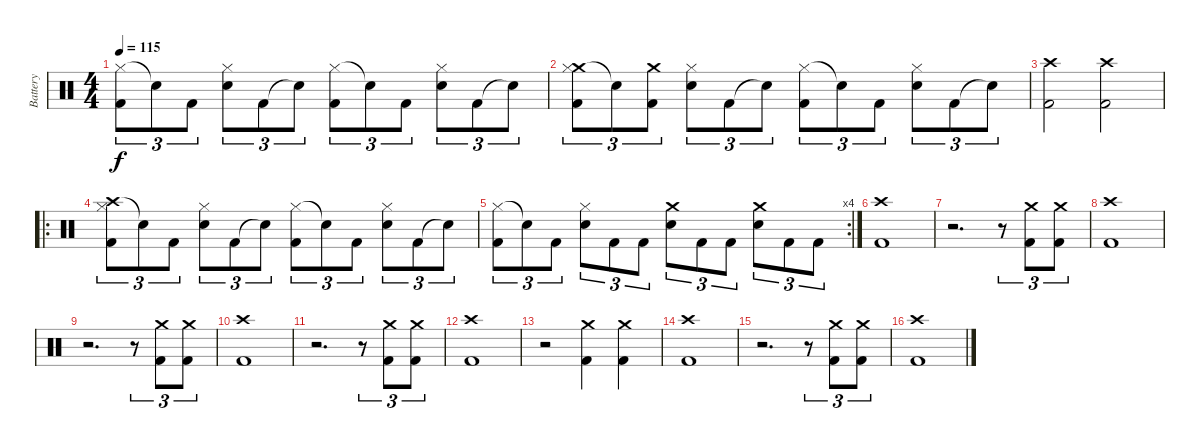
\track ("Battery" "Battery") {instrument percussion}
\staff {score}
\articulation defaults
\ts (4 4)
\tempo 115
\clef neutral
\ks c
("Hi-Hat (closed)" "Kick (hit) 2").8{tu (3 2) dy f} "Snare (hit)"{t}.8{tu (3 2)} "Kick (hit) 2".8{tu (3 2)} ("Hi-Hat (closed)" "Electric Snare (hit)").8{tu (3 2)} "Kick (hit) 2".8{tu (3 2)} "Snare (hit)"{t}.8{tu (3 2)} ("Hi-Hat (closed)" "Kick (hit) 2").8{tu (3 2)} "Snare (hit)"{t}.8{tu (3 2)} "Kick (hit) 2".8{tu (3 2)} ("Hi-Hat (closed)" "Electric Snare (hit)").8{tu (3 2)} "Kick (hit) 2".8{tu (3 2)} "Snare (hit)"{t}.8{tu (3 2)} |
("Crash medium (hit)" "Hi-Hat (closed)" "Kick (hit) 2").8{tu (3 2)} "Snare (hit)"{t}.8{tu (3 2)} ("Crash medium (hit)" "Kick (hit) 2").8{tu (3 2)} ("Hi-Hat (closed)" "Electric Snare (hit)").8{tu (3 2)} "Kick (hit) 2".8{tu (3 2)} "Snare (hit)"{t}.8{tu (3 2)} ("Hi-Hat (closed)" "Kick (hit) 2").8{tu (3 2)} "Snare (hit)"{t}.8{tu (3 2)} "Kick (hit) 2".8{tu (3 2)} ("Hi-Hat (closed)" "Electric Snare (hit)").8{tu (3 2)} "Kick (hit) 2".8{tu (3 2)} "Snare (hit)"{t}.8{tu (3 2)} |
("Crash high (hit)" "Kick (hit) 2").2 ("Crash high (hit)" "Kick (hit) 2").2 |
\ro
("Crash high (hit)" "Hi-Hat (closed)" "Kick (hit) 2").8{tu (3 2)} "Snare (hit)"{t}.8{tu (3 2)} "Kick (hit) 2".8{tu (3 2)} ("Hi-Hat (closed)" "Electric Snare (hit)").8{tu (3 2)} "Kick (hit) 2".8{tu (3 2)} "Snare (hit)"{t}.8{tu (3 2)} ("Hi-Hat (closed)" "Kick (hit) 2").8{tu (3 2)} "Snare (hit)"{t}.8{tu (3 2)} "Kick (hit) 2".8{tu (3 2)} ("Hi-Hat (closed)" "Electric Snare (hit)").8{tu (3 2)} "Kick (hit) 2".8{tu (3 2)} "Snare (hit)"{t}.8{tu (3 2)} |
\rc 4
("Hi-Hat (closed)" "Kick (hit) 2").8{tu (3 2)} "Snare (hit)"{t}.8{tu (3 2)} "Kick (hit) 2".8{tu (3 2)} ("Hi-Hat (closed)" "Electric Snare (hit)").8{tu (3 2)} "Kick (hit) 2".8{tu (3 2)} "Kick (hit) 2".8{tu (3 2)} ("Crash medium (hit)" "Electric Snare (hit)").8{tu (3 2)} "Kick (hit) 2".8{tu (3 2)} "Kick (hit) 2".8{tu (3 2)} ("Crash medium (hit)" "Electric Snare (hit)").8{tu (3 2)} "Kick (hit) 2".8{tu (3 2)} "Kick (hit) 2".8{tu (3 2)} |
("Crash high (hit)" "Kick (hit) 2").1 |
r.2{d} r.8{tu (3 2)} ("Crash medium (hit)" "Kick (hit) 2").8{tu (3 2)} ("Crash medium (hit)" "Kick (hit) 2").8{tu (3 2)} |
("Crash high (hit)" "Kick (hit) 2").1 |
r.2{d} r.8{tu (3 2)} ("Crash medium (hit)" "Kick (hit) 2").8{tu (3 2)} ("Crash medium (hit)" "Kick (hit) 2").8{tu (3 2)} |
("Crash high (hit)" "Kick (hit) 2").1 |
r.2{d} r.8{tu (3 2)} ("Crash medium (hit)" "Kick (hit) 2").8{tu (3 2)} ("Crash medium (hit)" "Kick (hit) 2").8{tu (3 2)} |
("Crash high (hit)" "Kick (hit) 2").1 |
r.2 ("Crash medium (hit)" "Kick (hit) 2").4 ("Crash medium (hit)" "Kick (hit) 2").4 |
("Crash high (hit)" "Kick (hit) 2").1 |
r.2{d} r.8{tu (3 2)} ("Crash medium (hit)" "Kick (hit) 2").8{tu (3 2)} ("Crash medium (hit)" "Kick (hit) 2").8{tu (3 2)} |
("Crash high (hit)" "Kick (hit) 2").1
